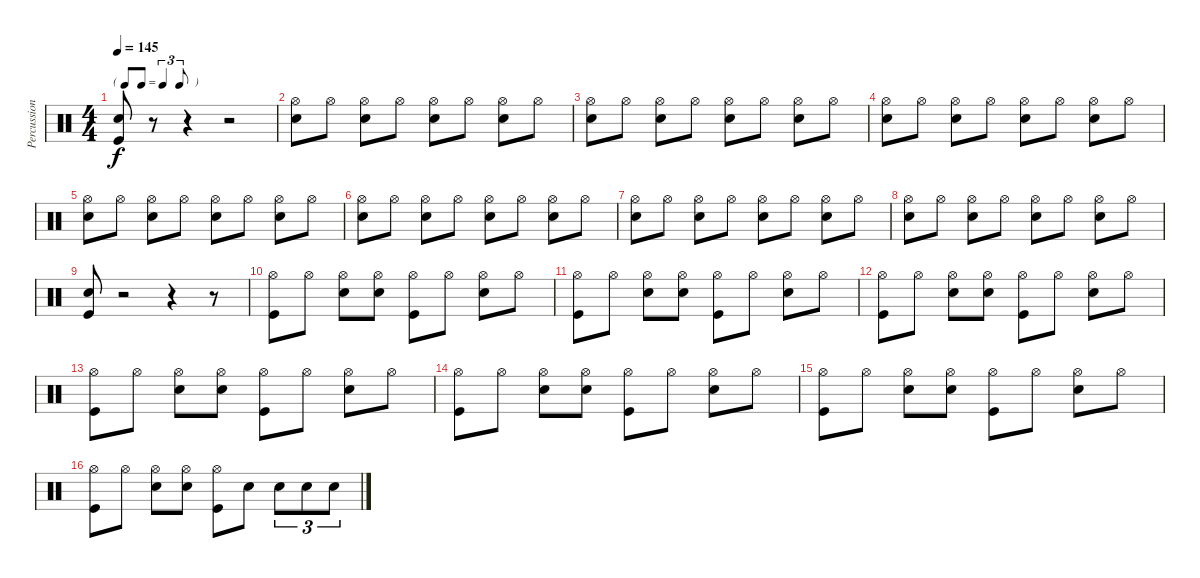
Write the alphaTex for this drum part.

\track ("Percussion" "Percussion") {instrument percussion}
\staff {score}
\articulation defaults
\ts (4 4)
\tf triplet8th
\tempo 145
\clef neutral
\ks c
("Snare (hit) 2" "Kick (hit)").8{dy f} r.8 r.4 r.2 |
("Hi-Hat (open)" "Snare (hit) 2").8 "Hi-Hat (open)".8 ("Hi-Hat (open)" "Snare (hit) 2").8 "Hi-Hat (open)".8 ("Hi-Hat (open)" "Snare (hit) 2").8 "Hi-Hat (open)".8 ("Hi-Hat (open)" "Snare (hit) 2").8 "Hi-Hat (open)".8 |
("Hi-Hat (open)" "Snare (hit) 2").8 "Hi-Hat (open)".8 ("Hi-Hat (open)" "Snare (hit) 2").8 "Hi-Hat (open)".8 ("Hi-Hat (open)" "Snare (hit) 2").8 "Hi-Hat (open)".8 ("Hi-Hat (open)" "Snare (hit) 2").8 "Hi-Hat (open)".8 |
("Hi-Hat (open)" "Snare (hit) 2").8 "Hi-Hat (open)".8 ("Hi-Hat (open)" "Snare (hit) 2").8 "Hi-Hat (open)".8 ("Hi-Hat (open)" "Snare (hit) 2").8 "Hi-Hat (open)".8 ("Hi-Hat (open)" "Snare (hit) 2").8 "Hi-Hat (open)".8 |
("Hi-Hat (open)" "Snare (hit) 2").8 "Hi-Hat (open)".8 ("Hi-Hat (open)" "Snare (hit) 2").8 "Hi-Hat (open)".8 ("Hi-Hat (open)" "Snare (hit) 2").8 "Hi-Hat (open)".8 ("Hi-Hat (open)" "Snare (hit) 2").8 "Hi-Hat (open)".8 |
("Hi-Hat (open)" "Snare (hit) 2").8 "Hi-Hat (open)".8 ("Hi-Hat (open)" "Snare (hit) 2").8 "Hi-Hat (open)".8 ("Hi-Hat (open)" "Snare (hit) 2").8 "Hi-Hat (open)".8 ("Hi-Hat (open)" "Snare (hit) 2").8 "Hi-Hat (open)".8 |
("Hi-Hat (open)" "Snare (hit) 2").8 "Hi-Hat (open)".8 ("Hi-Hat (open)" "Snare (hit) 2").8 "Hi-Hat (open)".8 ("Hi-Hat (open)" "Snare (hit) 2").8 "Hi-Hat (open)".8 ("Hi-Hat (open)" "Snare (hit) 2").8 "Hi-Hat (open)".8 |
("Hi-Hat (open)" "Snare (hit) 2").8 "Hi-Hat (open)".8 ("Hi-Hat (open)" "Snare (hit) 2").8 "Hi-Hat (open)".8 ("Hi-Hat (open)" "Snare (hit) 2").8 "Hi-Hat (open)".8 ("Hi-Hat (open)" "Snare (hit) 2").8 "Hi-Hat (open)".8 |
("Snare (hit) 2" "Kick (hit)").8 r.2 r.4 r.8 |
("Hi-Hat (open)" "Kick (hit)").8 "Hi-Hat (open)".8 ("Hi-Hat (open)" "Snare (hit) 2").8 ("Hi-Hat (open)" "Snare (hit) 2").8 ("Hi-Hat (open)" "Kick (hit)").8 "Hi-Hat (open)".8 ("Hi-Hat (open)" "Snare (hit) 2").8 "Hi-Hat (open)".8 |
("Hi-Hat (open)" "Kick (hit)").8 "Hi-Hat (open)".8 ("Hi-Hat (open)" "Snare (hit) 2").8 ("Hi-Hat (open)" "Snare (hit) 2").8 ("Hi-Hat (open)" "Kick (hit)").8 "Hi-Hat (open)".8 ("Hi-Hat (open)" "Snare (hit) 2").8 "Hi-Hat (open)".8 |
("Hi-Hat (open)" "Kick (hit)").8 "Hi-Hat (open)".8 ("Hi-Hat (open)" "Snare (hit) 2").8 ("Hi-Hat (open)" "Snare (hit) 2").8 ("Hi-Hat (open)" "Kick (hit)").8 "Hi-Hat (open)".8 ("Hi-Hat (open)" "Snare (hit) 2").8 "Hi-Hat (open)".8 |
("Hi-Hat (open)" "Kick (hit)").8 "Hi-Hat (open)".8 ("Hi-Hat (open)" "Snare (hit) 2").8 ("Hi-Hat (open)" "Snare (hit) 2").8 ("Hi-Hat (open)" "Kick (hit)").8 "Hi-Hat (open)".8 ("Hi-Hat (open)" "Snare (hit) 2").8 "Hi-Hat (open)".8 |
("Hi-Hat (open)" "Kick (hit)").8 "Hi-Hat (open)".8 ("Hi-Hat (open)" "Snare (hit) 2").8 ("Hi-Hat (open)" "Snare (hit) 2").8 ("Hi-Hat (open)" "Kick (hit)").8 "Hi-Hat (open)".8 ("Hi-Hat (open)" "Snare (hit) 2").8 "Hi-Hat (open)".8 |
("Hi-Hat (open)" "Kick (hit)").8 "Hi-Hat (open)".8 ("Hi-Hat (open)" "Snare (hit) 2").8 ("Hi-Hat (open)" "Snare (hit) 2").8 ("Hi-Hat (open)" "Kick (hit)").8 "Hi-Hat (open)".8 ("Hi-Hat (open)" "Snare (hit) 2").8 "Hi-Hat (open)".8 |
("Hi-Hat (open)" "Kick (hit)").8 "Hi-Hat (open)".8 ("Hi-Hat (open)" "Snare (hit) 2").8 ("Hi-Hat (open)" "Snare (hit) 2").8 ("Hi-Hat (open)" "Kick (hit)").8 "Snare (hit) 2".8 "Snare (hit) 2".8{tu (3 2)} "Snare (hit) 2".8{tu (3 2)} "Snare (hit) 2".8{tu (3 2)}
